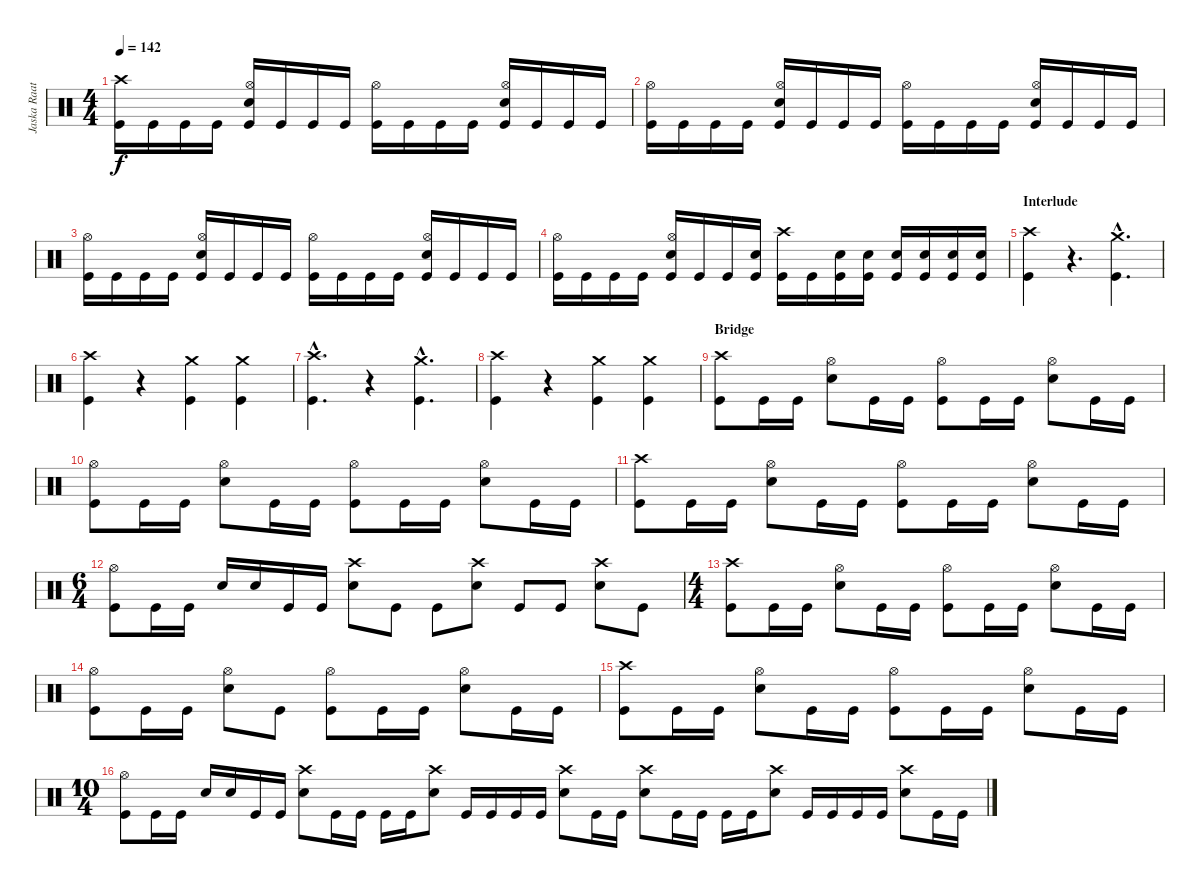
\track ("Jaska Raatikainen" "Jaska Raat") {instrument percussion}
\staff {score}
\articulation defaults
\ts (4 4)
\tempo 142
\clef neutral
\ks c
("Crash high (hit)" "Kick (hit)").16{dy f} "Kick (hit)".16 "Kick (hit)".16 "Kick (hit)".16 ("Hi-Hat (open)" "Snare (hit) 2" "Kick (hit)").16 "Kick (hit)".16 "Kick (hit)".16 "Kick (hit)".16 ("Hi-Hat (open)" "Kick (hit)").16 "Kick (hit)".16 "Kick (hit)".16 "Kick (hit)".16 ("Hi-Hat (open)" "Snare (hit) 2" "Kick (hit)").16 "Kick (hit)".16 "Kick (hit)".16 "Kick (hit)".16 |
("Hi-Hat (open)" "Kick (hit)").16 "Kick (hit)".16 "Kick (hit)".16 "Kick (hit)".16 ("Hi-Hat (open)" "Snare (hit) 2" "Kick (hit)").16 "Kick (hit)".16 "Kick (hit)".16 "Kick (hit)".16 ("Hi-Hat (open)" "Kick (hit)").16 "Kick (hit)".16 "Kick (hit)".16 "Kick (hit)".16 ("Hi-Hat (open)" "Snare (hit) 2" "Kick (hit)").16 "Kick (hit)".16 "Kick (hit)".16 "Kick (hit)".16 |
("Hi-Hat (open)" "Kick (hit)").16 "Kick (hit)".16 "Kick (hit)".16 "Kick (hit)".16 ("Hi-Hat (open)" "Snare (hit) 2" "Kick (hit)").16 "Kick (hit)".16 "Kick (hit)".16 "Kick (hit)".16 ("Hi-Hat (open)" "Kick (hit)").16 "Kick (hit)".16 "Kick (hit)".16 "Kick (hit)".16 ("Hi-Hat (open)" "Snare (hit) 2" "Kick (hit)").16 "Kick (hit)".16 "Kick (hit)".16 "Kick (hit)".16 |
("Hi-Hat (open)" "Kick (hit)").16 "Kick (hit)".16 "Kick (hit)".16 "Kick (hit)".16 ("Hi-Hat (open)" "Snare (hit) 2" "Kick (hit)").16 "Kick (hit)".16 "Kick (hit)".16 ("Snare (hit) 2" "Kick (hit)").16 ("Crash high (hit)" "Kick (hit)").16 "Kick (hit)".16 ("Snare (hit) 2" "Kick (hit)").16 ("Snare (hit) 2" "Kick (hit)").16 ("Snare (hit) 2" "Kick (hit)").16 ("Snare (hit) 2" "Kick (hit)").16 ("Snare (hit) 2" "Kick (hit)").16 ("Snare (hit) 2" "Kick (hit)").16 |
\section ("" "Interlude")
("Crash high (hit)" "Kick (hit)").4 r.4{d} ("Crash medium (hit)"{hac} "Kick (hit)"{hac}).4{d} |
("Crash high (hit)" "Kick (hit)").4 r.4 ("Crash medium (hit)" "Kick (hit)").4 ("Crash medium (hit)" "Kick (hit)").4 |
("Crash high (hit)"{hac} "Kick (hit)"{hac}).4{d} r.4 ("Crash medium (hit)"{hac} "Kick (hit)"{hac}).4{d} |
("Crash high (hit)" "Kick (hit)").4 r.4 ("Crash medium (hit)" "Kick (hit)").4 ("Crash medium (hit)" "Kick (hit)").4 |
\section ("" "Bridge")
("Crash high (hit)" "Kick (hit)").8 "Kick (hit)".16 "Kick (hit)".16 ("Hi-Hat (open)" "Snare (hit) 2").8 "Kick (hit)".16 "Kick (hit)".16 ("Hi-Hat (open)" "Kick (hit)").8 "Kick (hit)".16 "Kick (hit)".16 ("Hi-Hat (open)" "Snare (hit) 2").8 "Kick (hit)".16 "Kick (hit)".16 |
("Hi-Hat (open)" "Kick (hit)").8 "Kick (hit)".16 "Kick (hit)".16 ("Hi-Hat (open)" "Snare (hit) 2").8 "Kick (hit)".16 "Kick (hit)".16 ("Hi-Hat (open)" "Kick (hit)").8 "Kick (hit)".16 "Kick (hit)".16 ("Hi-Hat (open)" "Snare (hit) 2").8 "Kick (hit)".16 "Kick (hit)".16 |
("Crash high (hit)" "Kick (hit)").8 "Kick (hit)".16 "Kick (hit)".16 ("Hi-Hat (open)" "Snare (hit) 2").8 "Kick (hit)".16 "Kick (hit)".16 ("Hi-Hat (open)" "Kick (hit)").8 "Kick (hit)".16 "Kick (hit)".16 ("Hi-Hat (open)" "Snare (hit) 2").8 "Kick (hit)".16 "Kick (hit)".16 |
\ts (6 4)
("Hi-Hat (open)" "Kick (hit)").8 "Kick (hit)".16 "Kick (hit)".16 "Snare (hit) 2".16 "Snare (hit) 2".16 "Kick (hit)".16 "Kick (hit)".16 ("Crash high (hit)" "Snare (hit) 2").8 "Kick (hit)".8 "Kick (hit)".8 ("Crash high (hit)" "Snare (hit) 2").8 "Kick (hit)".8 "Kick (hit)".8 ("Crash high (hit)" "Snare (hit) 2").8 "Kick (hit)".8 |
\ts (4 4)
("Crash high (hit)" "Kick (hit)").8 "Kick (hit)".16 "Kick (hit)".16 ("Hi-Hat (open)" "Snare (hit) 2").8 "Kick (hit)".16 "Kick (hit)".16 ("Hi-Hat (open)" "Kick (hit)").8 "Kick (hit)".16 "Kick (hit)".16 ("Hi-Hat (open)" "Snare (hit) 2").8 "Kick (hit)".16 "Kick (hit)".16 |
("Hi-Hat (open)" "Kick (hit)").8 "Kick (hit)".16 "Kick (hit)".16 ("Hi-Hat (open)" "Snare (hit) 2").8 "Kick (hit)".8 ("Hi-Hat (open)" "Kick (hit)").8 "Kick (hit)".16 "Kick (hit)".16 ("Hi-Hat (open)" "Snare (hit) 2").8 "Kick (hit)".16 "Kick (hit)".16 |
("Crash high (hit)" "Kick (hit)").8 "Kick (hit)".16 "Kick (hit)".16 ("Hi-Hat (open)" "Snare (hit) 2").8 "Kick (hit)".16 "Kick (hit)".16 ("Hi-Hat (open)" "Kick (hit)").8 "Kick (hit)".16 "Kick (hit)".16 ("Hi-Hat (open)" "Snare (hit) 2").8 "Kick (hit)".16 "Kick (hit)".16 |
\ts (10 4)
("Hi-Hat (open)" "Kick (hit)").8 "Kick (hit)".16 "Kick (hit)".16 "Snare (hit) 2".16 "Snare (hit) 2".16 "Kick (hit)".16 "Kick (hit)".16 ("Crash high (hit)" "Snare (hit) 2").8 "Kick (hit)".16 "Kick (hit)".16 "Kick (hit)".16 "Kick (hit)".16 ("Crash high (hit)" "Snare (hit) 2").8 "Kick (hit)".16 "Kick (hit)".16 "Kick (hit)".16 "Kick (hit)".16 ("Crash high (hit)" "Snare (hit) 2").8 "Kick (hit)".16 "Kick (hit)".16 ("Crash high (hit)" "Snare (hit) 2").8 "Kick (hit)".16 "Kick (hit)".16 "Kick (hit)".16 "Kick (hit)".16 ("Crash high (hit)" "Snare (hit) 2").8 "Kick (hit)".16 "Kick (hit)".16 "Kick (hit)".16 "Kick (hit)".16 ("Crash high (hit)" "Snare (hit) 2").8 "Kick (hit)".16 "Kick (hit)".16
